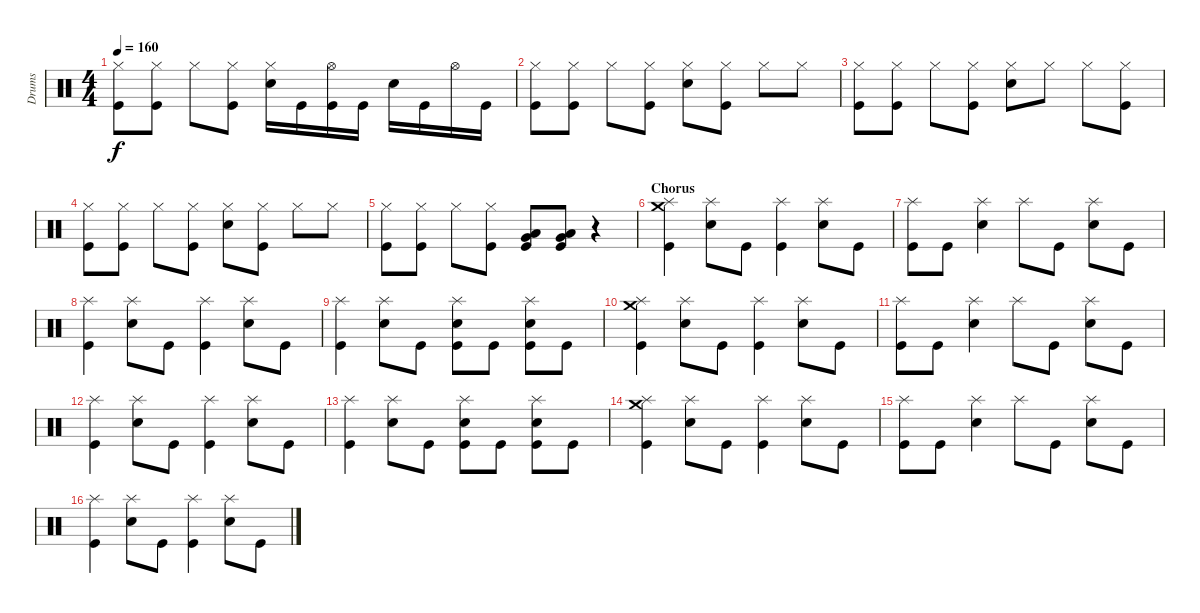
\track ("Drums" "Drums") {instrument percussion}
\staff {score}
\articulation defaults
\ts (4 4)
\tempo 160
\clef neutral
\ks c
("Hi-Hat (closed)" "Kick (hit)").8{dy f} ("Hi-Hat (closed)" "Kick (hit)").8 "Hi-Hat (closed)".8 ("Hi-Hat (closed)" "Kick (hit)").8 ("Hi-Hat (closed)" "Electric Snare (hit)").16 "Kick (hit)".16 ("Hi-Hat (open)" "Kick (hit)").16 "Kick (hit)".16 "Electric Snare (hit)".16 "Kick (hit)".16 "Hi-Hat (open)".16 "Kick (hit)".16 |
("Hi-Hat (closed)" "Kick (hit)").8 ("Hi-Hat (closed)" "Kick (hit)").8 "Hi-Hat (closed)".8 ("Hi-Hat (closed)" "Kick (hit)").8 ("Hi-Hat (closed)" "Electric Snare (hit)").8 ("Hi-Hat (closed)" "Kick (hit)").8 "Hi-Hat (closed)".8 "Hi-Hat (closed)".8 |
("Hi-Hat (closed)" "Kick (hit)").8 ("Hi-Hat (closed)" "Kick (hit)").8 "Hi-Hat (closed)".8 ("Hi-Hat (closed)" "Kick (hit)").8 ("Hi-Hat (closed)" "Electric Snare (hit)").8 "Hi-Hat (closed)".8 "Hi-Hat (closed)".8 ("Hi-Hat (closed)" "Kick (hit)").8 |
("Hi-Hat (closed)" "Kick (hit)").8 ("Hi-Hat (closed)" "Kick (hit)").8 "Hi-Hat (closed)".8 ("Hi-Hat (closed)" "Kick (hit)").8 ("Hi-Hat (closed)" "Electric Snare (hit)").8 ("Hi-Hat (closed)" "Kick (hit)").8 "Hi-Hat (closed)".8 "Hi-Hat (closed)".8 |
("Hi-Hat (closed)" "Kick (hit)").8 ("Hi-Hat (closed)" "Kick (hit)").8 "Hi-Hat (closed)".8 ("Hi-Hat (closed)" "Kick (hit)").8 ("Very Low Tom (hit)" "Low Floor Tom (hit)" "Kick (hit)").8 ("Very Low Tom (hit)" "Low Floor Tom (hit)" "Kick (hit)").8 r.4 |
\section ("" "Chorus")
("Crash medium (hit)" "Splash (hit)" "Kick (hit)").4 ("Splash (hit)" "Electric Snare (hit)").8 "Kick (hit)".8 ("Splash (hit)" "Kick (hit)").4 ("Splash (hit)" "Electric Snare (hit)").8 "Kick (hit)".8 |
("Splash (hit)" "Kick (hit)").8 "Kick (hit)".8 ("Splash (hit)" "Electric Snare (hit)").4 "Splash (hit)".8 "Kick (hit)".8 ("Splash (hit)" "Electric Snare (hit)").8 "Kick (hit)".8 |
("Splash (hit)" "Kick (hit)").4 ("Splash (hit)" "Electric Snare (hit)").8 "Kick (hit)".8 ("Splash (hit)" "Kick (hit)").4 ("Splash (hit)" "Electric Snare (hit)").8 "Kick (hit)".8 |
("Splash (hit)" "Kick (hit)").4 ("Splash (hit)" "Electric Snare (hit)").8 "Kick (hit)".8 ("Splash (hit)" "Electric Snare (hit)" "Kick (hit)").8 "Kick (hit)".8 ("Splash (hit)" "Electric Snare (hit)" "Kick (hit)").8 "Kick (hit)".8 |
("Crash medium (hit)" "Splash (hit)" "Kick (hit)").4 ("Splash (hit)" "Electric Snare (hit)").8 "Kick (hit)".8 ("Splash (hit)" "Kick (hit)").4 ("Splash (hit)" "Electric Snare (hit)").8 "Kick (hit)".8 |
("Splash (hit)" "Kick (hit)").8 "Kick (hit)".8 ("Splash (hit)" "Electric Snare (hit)").4 "Splash (hit)".8 "Kick (hit)".8 ("Splash (hit)" "Electric Snare (hit)").8 "Kick (hit)".8 |
("Splash (hit)" "Kick (hit)").4 ("Splash (hit)" "Electric Snare (hit)").8 "Kick (hit)".8 ("Splash (hit)" "Kick (hit)").4 ("Splash (hit)" "Electric Snare (hit)").8 "Kick (hit)".8 |
("Splash (hit)" "Kick (hit)").4 ("Splash (hit)" "Electric Snare (hit)").8 "Kick (hit)".8 ("Splash (hit)" "Electric Snare (hit)" "Kick (hit)").8 "Kick (hit)".8 ("Splash (hit)" "Electric Snare (hit)" "Kick (hit)").8 "Kick (hit)".8 |
("Crash medium (hit)" "Splash (hit)" "Kick (hit)").4 ("Splash (hit)" "Electric Snare (hit)").8 "Kick (hit)".8 ("Splash (hit)" "Kick (hit)").4 ("Splash (hit)" "Electric Snare (hit)").8 "Kick (hit)".8 |
("Splash (hit)" "Kick (hit)").8 "Kick (hit)".8 ("Splash (hit)" "Electric Snare (hit)").4 "Splash (hit)".8 "Kick (hit)".8 ("Splash (hit)" "Electric Snare (hit)").8 "Kick (hit)".8 |
("Splash (hit)" "Kick (hit)").4 ("Splash (hit)" "Electric Snare (hit)").8 "Kick (hit)".8 ("Splash (hit)" "Kick (hit)").4 ("Splash (hit)" "Electric Snare (hit)").8 "Kick (hit)".8
